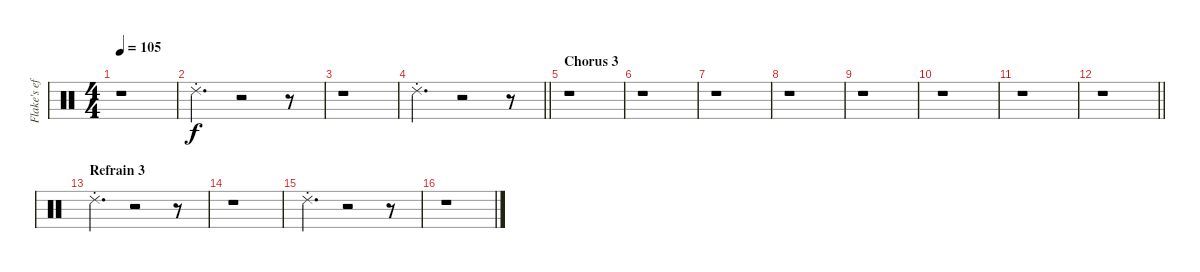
\track ("Flake's effects" "Flake's ef") {instrument percussion}
\staff {score}
\articulation defaults
\ts (4 4)
\tempo 105
\clef neutral
\ks c
r.1{dy f} |
"Ride (choke) 2".4{d} r.2 r.8 |
r.1 |
\barLineRight lightlight "Ride (choke) 2".4{d}
r.2 r.8 |
\section ("" "Chorus 3")
r.1 |
r.1 |
r.1 |
r.1 |
r.1 |
r.1 |
r.1 |
\barLineRight lightlight
r.1 |
\section ("" "Refrain 3")
"Ride (choke) 2".4{d} r.2 r.8 |
r.1 |
"Ride (choke) 2".4{d} r.2 r.8 |
r.1
